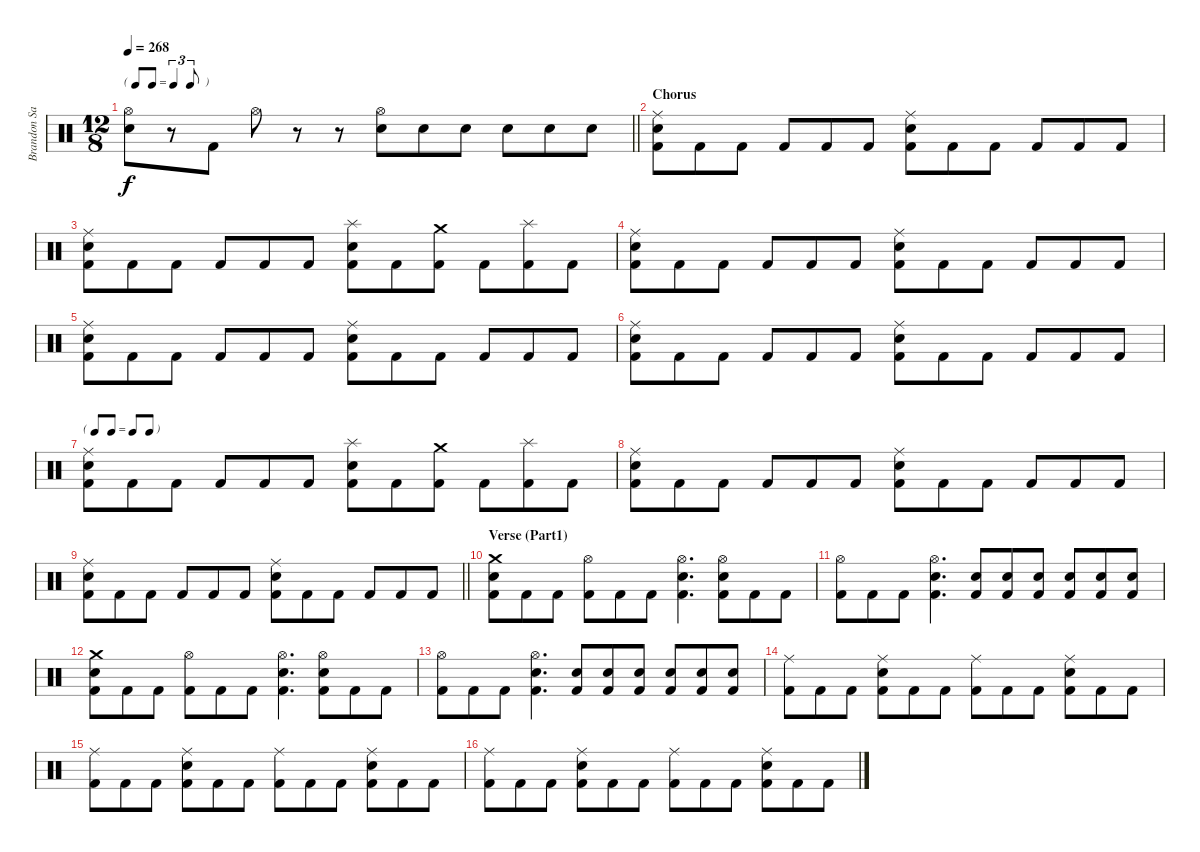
\track ("Brandon Saller" "Brandon Sa") {instrument percussion}
\staff {score}
\articulation defaults
\ts (12 8)
\tf triplet8th
\tempo 268
\clef neutral
\barLineRight lightlight
\ks c
("Hi-Hat (open)" "Electric Snare (hit)").8{dy f} r.8 "Kick (hit) 2".8 "Hi-Hat (open)".8 r.8 r.8 ("Hi-Hat (open)" "Electric Snare (hit)").8 "Electric Snare (hit)".8 "Electric Snare (hit)".8 "Electric Snare (hit)".8 "Electric Snare (hit)".8 "Electric Snare (hit)".8 |
\section ("" "Chorus")
("Ride (middle)" "Electric Snare (hit)" "Kick (hit) 2").8 "Kick (hit) 2".8 "Kick (hit) 2".8 "Kick (hit) 2".8 "Kick (hit) 2".8 "Kick (hit) 2".8 ("Ride (middle)" "Electric Snare (hit)" "Kick (hit) 2").8 "Kick (hit) 2".8 "Kick (hit) 2".8 "Kick (hit) 2".8 "Kick (hit) 2".8 "Kick (hit) 2".8 |
("Ride (middle)" "Electric Snare (hit)" "Kick (hit) 2").8 "Kick (hit) 2".8 "Kick (hit) 2".8 "Kick (hit) 2".8 "Kick (hit) 2".8 "Kick (hit) 2".8 ("Splash (hit)" "Electric Snare (hit)" "Kick (hit) 2").8 "Kick (hit) 2".8 ("Crash medium (hit)" "Kick (hit) 2").8 "Kick (hit) 2".8 ("Splash (hit)" "Kick (hit) 2").8 "Kick (hit) 2".8 |
("Ride (middle)" "Electric Snare (hit)" "Kick (hit) 2").8 "Kick (hit) 2".8 "Kick (hit) 2".8 "Kick (hit) 2".8 "Kick (hit) 2".8 "Kick (hit) 2".8 ("Ride (middle)" "Electric Snare (hit)" "Kick (hit) 2").8 "Kick (hit) 2".8 "Kick (hit) 2".8 "Kick (hit) 2".8 "Kick (hit) 2".8 "Kick (hit) 2".8 |
("Ride (middle)" "Electric Snare (hit)" "Kick (hit) 2").8 "Kick (hit) 2".8 "Kick (hit) 2".8 "Kick (hit) 2".8 "Kick (hit) 2".8 "Kick (hit) 2".8 ("Ride (middle)" "Electric Snare (hit)" "Kick (hit) 2").8 "Kick (hit) 2".8 "Kick (hit) 2".8 "Kick (hit) 2".8 "Kick (hit) 2".8 "Kick (hit) 2".8 |
("Ride (middle)" "Electric Snare (hit)" "Kick (hit) 2").8 "Kick (hit) 2".8 "Kick (hit) 2".8 "Kick (hit) 2".8 "Kick (hit) 2".8 "Kick (hit) 2".8 ("Ride (middle)" "Electric Snare (hit)" "Kick (hit) 2").8 "Kick (hit) 2".8 "Kick (hit) 2".8 "Kick (hit) 2".8 "Kick (hit) 2".8 "Kick (hit) 2".8 |
\tf none
("Ride (middle)" "Electric Snare (hit)" "Kick (hit) 2").8 "Kick (hit) 2".8 "Kick (hit) 2".8 "Kick (hit) 2".8 "Kick (hit) 2".8 "Kick (hit) 2".8 ("Splash (hit)" "Electric Snare (hit)" "Kick (hit) 2").8 "Kick (hit) 2".8 ("Crash medium (hit)" "Kick (hit) 2").8 "Kick (hit) 2".8 ("Splash (hit)" "Kick (hit) 2").8 "Kick (hit) 2".8 |
("Ride (middle)" "Electric Snare (hit)" "Kick (hit) 2").8 "Kick (hit) 2".8 "Kick (hit) 2".8 "Kick (hit) 2".8 "Kick (hit) 2".8 "Kick (hit) 2".8 ("Ride (middle)" "Electric Snare (hit)" "Kick (hit) 2").8 "Kick (hit) 2".8 "Kick (hit) 2".8 "Kick (hit) 2".8 "Kick (hit) 2".8 "Kick (hit) 2".8 |
\barLineRight lightlight
("Ride (middle)" "Electric Snare (hit)" "Kick (hit) 2").8 "Kick (hit) 2".8 "Kick (hit) 2".8 "Kick (hit) 2".8 "Kick (hit) 2".8 "Kick (hit) 2".8 ("Ride (middle)" "Electric Snare (hit)" "Kick (hit) 2").8 "Kick (hit) 2".8 "Kick (hit) 2".8 "Kick (hit) 2".8 "Kick (hit) 2".8 "Kick (hit) 2".8 |
\section ("" "Verse (Part1)")
("Crash medium (hit)" "Electric Snare (hit)" "Kick (hit) 2").8 "Kick (hit) 2".8 "Kick (hit) 2".8 ("Hi-Hat (open)" "Kick (hit) 2").8 "Kick (hit) 2".8 "Kick (hit) 2".8 ("Hi-Hat (open)" "Electric Snare (hit)" "Kick (hit) 2").4{d} ("Hi-Hat (open)" "Electric Snare (hit)" "Kick (hit) 2").8 "Kick (hit) 2".8 "Kick (hit) 2".8 |
("Hi-Hat (open)" "Kick (hit) 2").8 "Kick (hit) 2".8 "Kick (hit) 2".8 ("Hi-Hat (open)" "Electric Snare (hit)" "Kick (hit) 2").4{d} ("Electric Snare (hit)" "Kick (hit) 2").8 ("Electric Snare (hit)" "Kick (hit) 2").8 ("Electric Snare (hit)" "Kick (hit) 2").8 ("Electric Snare (hit)" "Kick (hit) 2").8 ("Electric Snare (hit)" "Kick (hit) 2").8 ("Electric Snare (hit)" "Kick (hit) 2").8 |
("Crash medium (hit)" "Electric Snare (hit)" "Kick (hit) 2").8 "Kick (hit) 2".8 "Kick (hit) 2".8 ("Hi-Hat (open)" "Kick (hit) 2").8 "Kick (hit) 2".8 "Kick (hit) 2".8 ("Hi-Hat (open)" "Electric Snare (hit)" "Kick (hit) 2").4{d} ("Hi-Hat (open)" "Electric Snare (hit)" "Kick (hit) 2").8 "Kick (hit) 2".8 "Kick (hit) 2".8 |
("Hi-Hat (open)" "Kick (hit) 2").8 "Kick (hit) 2".8 "Kick (hit) 2".8 ("Hi-Hat (open)" "Electric Snare (hit)" "Kick (hit) 2").4{d} ("Electric Snare (hit)" "Kick (hit) 2").8 ("Electric Snare (hit)" "Kick (hit) 2").8 ("Electric Snare (hit)" "Kick (hit) 2").8 ("Electric Snare (hit)" "Kick (hit) 2").8 ("Electric Snare (hit)" "Kick (hit) 2").8 ("Electric Snare (hit)" "Kick (hit) 2").8 |
("Ride (middle)" "Kick (hit) 2").8 "Kick (hit) 2".8 "Kick (hit) 2".8 ("Ride (middle)" "Electric Snare (hit)" "Kick (hit) 2").8 "Kick (hit) 2".8 "Kick (hit) 2".8 ("Ride (middle)" "Kick (hit) 2").8 "Kick (hit) 2".8 "Kick (hit) 2".8 ("Ride (middle)" "Electric Snare (hit)" "Kick (hit) 2").8 "Kick (hit) 2".8 "Kick (hit) 2".8 |
("Ride (middle)" "Kick (hit) 2").8 "Kick (hit) 2".8 "Kick (hit) 2".8 ("Ride (middle)" "Electric Snare (hit)" "Kick (hit) 2").8 "Kick (hit) 2".8 "Kick (hit) 2".8 ("Ride (middle)" "Kick (hit) 2").8 "Kick (hit) 2".8 "Kick (hit) 2".8 ("Ride (middle)" "Electric Snare (hit)" "Kick (hit) 2").8 "Kick (hit) 2".8 "Kick (hit) 2".8 |
("Ride (middle)" "Kick (hit) 2").8 "Kick (hit) 2".8 "Kick (hit) 2".8 ("Ride (middle)" "Electric Snare (hit)" "Kick (hit) 2").8 "Kick (hit) 2".8 "Kick (hit) 2".8 ("Ride (middle)" "Kick (hit) 2").8 "Kick (hit) 2".8 "Kick (hit) 2".8 ("Ride (middle)" "Electric Snare (hit)" "Kick (hit) 2").8 "Kick (hit) 2".8 "Kick (hit) 2".8
